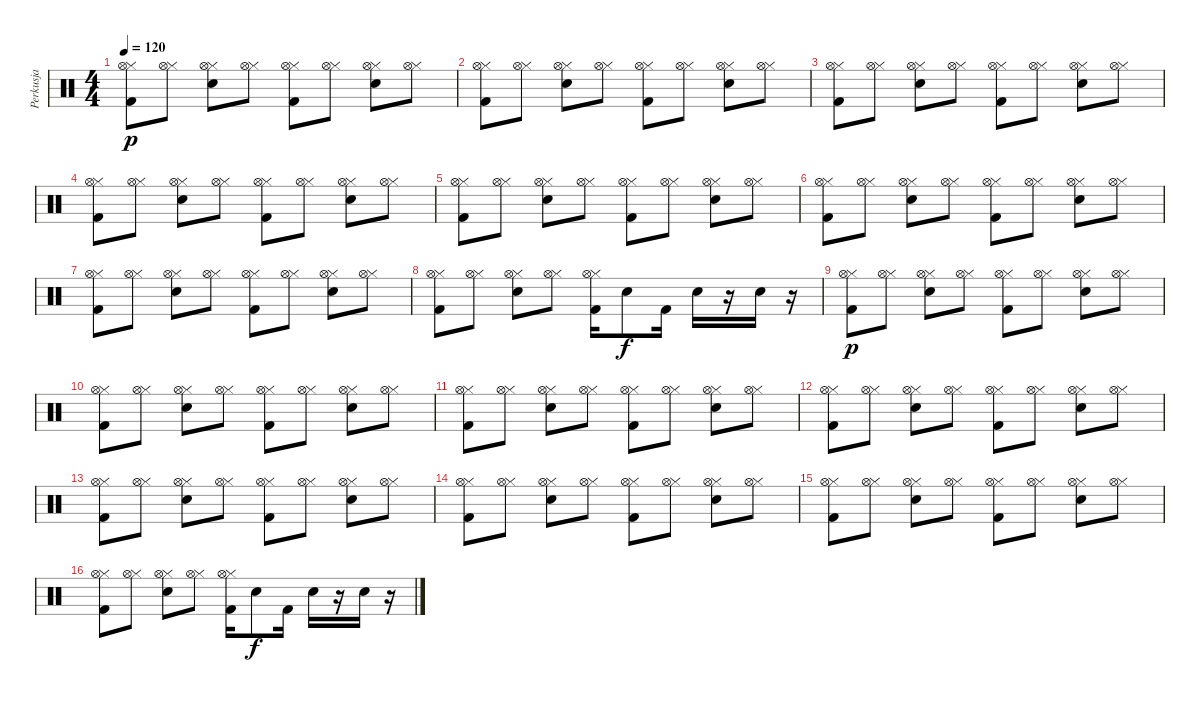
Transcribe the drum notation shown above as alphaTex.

\track ("Perkusja" "Perkusja") {instrument percussion}
\staff {score}
\articulation defaults
\ts (4 4)
\tempo 120
\clef neutral
\ks c
("Kick (hit) 2" "Hi-Hat (closed)" "Hi-Hat (open)").8{dy p} ("Hi-Hat (closed)" "Hi-Hat (open)").8 ("Electric Snare (hit)" "Hi-Hat (closed)" "Hi-Hat (open)").8 ("Hi-Hat (closed)" "Hi-Hat (open)").8 ("Kick (hit) 2" "Hi-Hat (closed)" "Hi-Hat (open)").8 ("Hi-Hat (closed)" "Hi-Hat (open)").8 ("Electric Snare (hit)" "Hi-Hat (closed)" "Hi-Hat (open)").8 ("Hi-Hat (closed)" "Hi-Hat (open)").8 |
("Kick (hit) 2" "Hi-Hat (closed)" "Hi-Hat (open)").8 ("Hi-Hat (closed)" "Hi-Hat (open)").8 ("Electric Snare (hit)" "Hi-Hat (closed)" "Hi-Hat (open)").8 ("Hi-Hat (closed)" "Hi-Hat (open)").8 ("Kick (hit) 2" "Hi-Hat (closed)" "Hi-Hat (open)").8 ("Hi-Hat (closed)" "Hi-Hat (open)").8 ("Electric Snare (hit)" "Hi-Hat (closed)" "Hi-Hat (open)").8 ("Hi-Hat (closed)" "Hi-Hat (open)").8 |
("Kick (hit) 2" "Hi-Hat (closed)" "Hi-Hat (open)").8 ("Hi-Hat (closed)" "Hi-Hat (open)").8 ("Electric Snare (hit)" "Hi-Hat (closed)" "Hi-Hat (open)").8 ("Hi-Hat (closed)" "Hi-Hat (open)").8 ("Kick (hit) 2" "Hi-Hat (closed)" "Hi-Hat (open)").8 ("Hi-Hat (closed)" "Hi-Hat (open)").8 ("Electric Snare (hit)" "Hi-Hat (closed)" "Hi-Hat (open)").8 ("Hi-Hat (closed)" "Hi-Hat (open)").8 |
("Kick (hit) 2" "Hi-Hat (closed)" "Hi-Hat (open)").8 ("Hi-Hat (closed)" "Hi-Hat (open)").8 ("Electric Snare (hit)" "Hi-Hat (closed)" "Hi-Hat (open)").8 ("Hi-Hat (closed)" "Hi-Hat (open)").8 ("Kick (hit) 2" "Hi-Hat (closed)" "Hi-Hat (open)").8 ("Hi-Hat (closed)" "Hi-Hat (open)").8 ("Electric Snare (hit)" "Hi-Hat (closed)" "Hi-Hat (open)").8 ("Hi-Hat (closed)" "Hi-Hat (open)").8 |
("Kick (hit) 2" "Hi-Hat (closed)" "Hi-Hat (open)").8 ("Hi-Hat (closed)" "Hi-Hat (open)").8 ("Electric Snare (hit)" "Hi-Hat (closed)" "Hi-Hat (open)").8 ("Hi-Hat (closed)" "Hi-Hat (open)").8 ("Kick (hit) 2" "Hi-Hat (closed)" "Hi-Hat (open)").8 ("Hi-Hat (closed)" "Hi-Hat (open)").8 ("Electric Snare (hit)" "Hi-Hat (closed)" "Hi-Hat (open)").8 ("Hi-Hat (closed)" "Hi-Hat (open)").8 |
("Kick (hit) 2" "Hi-Hat (closed)" "Hi-Hat (open)").8 ("Hi-Hat (closed)" "Hi-Hat (open)").8 ("Electric Snare (hit)" "Hi-Hat (closed)" "Hi-Hat (open)").8 ("Hi-Hat (closed)" "Hi-Hat (open)").8 ("Kick (hit) 2" "Hi-Hat (closed)" "Hi-Hat (open)").8 ("Hi-Hat (closed)" "Hi-Hat (open)").8 ("Electric Snare (hit)" "Hi-Hat (closed)" "Hi-Hat (open)").8 ("Hi-Hat (closed)" "Hi-Hat (open)").8 |
("Kick (hit) 2" "Hi-Hat (closed)" "Hi-Hat (open)").8 ("Hi-Hat (closed)" "Hi-Hat (open)").8 ("Electric Snare (hit)" "Hi-Hat (closed)" "Hi-Hat (open)").8 ("Hi-Hat (closed)" "Hi-Hat (open)").8 ("Kick (hit) 2" "Hi-Hat (closed)" "Hi-Hat (open)").8 ("Hi-Hat (closed)" "Hi-Hat (open)").8 ("Electric Snare (hit)" "Hi-Hat (closed)" "Hi-Hat (open)").8 ("Hi-Hat (closed)" "Hi-Hat (open)").8 |
("Kick (hit) 2" "Hi-Hat (closed)" "Hi-Hat (open)").8 ("Hi-Hat (closed)" "Hi-Hat (open)").8 ("Electric Snare (hit)" "Hi-Hat (closed)" "Hi-Hat (open)").8 ("Hi-Hat (closed)" "Hi-Hat (open)").8 ("Kick (hit) 2" "Hi-Hat (closed)" "Hi-Hat (open)").16 "Electric Snare (hit)".8{dy f} "Kick (hit) 2".16 "Electric Snare (hit)".16 r.16 "Electric Snare (hit)".16 r.16 |
("Kick (hit) 2" "Hi-Hat (closed)" "Hi-Hat (open)").8{dy p} ("Hi-Hat (closed)" "Hi-Hat (open)").8 ("Electric Snare (hit)" "Hi-Hat (closed)" "Hi-Hat (open)").8 ("Hi-Hat (closed)" "Hi-Hat (open)").8 ("Kick (hit) 2" "Hi-Hat (closed)" "Hi-Hat (open)").8 ("Hi-Hat (closed)" "Hi-Hat (open)").8 ("Electric Snare (hit)" "Hi-Hat (closed)" "Hi-Hat (open)").8 ("Hi-Hat (closed)" "Hi-Hat (open)").8 |
("Kick (hit) 2" "Hi-Hat (closed)" "Hi-Hat (open)").8 ("Hi-Hat (closed)" "Hi-Hat (open)").8 ("Electric Snare (hit)" "Hi-Hat (closed)" "Hi-Hat (open)").8 ("Hi-Hat (closed)" "Hi-Hat (open)").8 ("Kick (hit) 2" "Hi-Hat (closed)" "Hi-Hat (open)").8 ("Hi-Hat (closed)" "Hi-Hat (open)").8 ("Electric Snare (hit)" "Hi-Hat (closed)" "Hi-Hat (open)").8 ("Hi-Hat (closed)" "Hi-Hat (open)").8 |
("Kick (hit) 2" "Hi-Hat (closed)" "Hi-Hat (open)").8 ("Hi-Hat (closed)" "Hi-Hat (open)").8 ("Electric Snare (hit)" "Hi-Hat (closed)" "Hi-Hat (open)").8 ("Hi-Hat (closed)" "Hi-Hat (open)").8 ("Kick (hit) 2" "Hi-Hat (closed)" "Hi-Hat (open)").8 ("Hi-Hat (closed)" "Hi-Hat (open)").8 ("Electric Snare (hit)" "Hi-Hat (closed)" "Hi-Hat (open)").8 ("Hi-Hat (closed)" "Hi-Hat (open)").8 |
("Kick (hit) 2" "Hi-Hat (closed)" "Hi-Hat (open)").8 ("Hi-Hat (closed)" "Hi-Hat (open)").8 ("Electric Snare (hit)" "Hi-Hat (closed)" "Hi-Hat (open)").8 ("Hi-Hat (closed)" "Hi-Hat (open)").8 ("Kick (hit) 2" "Hi-Hat (closed)" "Hi-Hat (open)").8 ("Hi-Hat (closed)" "Hi-Hat (open)").8 ("Electric Snare (hit)" "Hi-Hat (closed)" "Hi-Hat (open)").8 ("Hi-Hat (closed)" "Hi-Hat (open)").8 |
("Kick (hit) 2" "Hi-Hat (closed)" "Hi-Hat (open)").8 ("Hi-Hat (closed)" "Hi-Hat (open)").8 ("Electric Snare (hit)" "Hi-Hat (closed)" "Hi-Hat (open)").8 ("Hi-Hat (closed)" "Hi-Hat (open)").8 ("Kick (hit) 2" "Hi-Hat (closed)" "Hi-Hat (open)").8 ("Hi-Hat (closed)" "Hi-Hat (open)").8 ("Electric Snare (hit)" "Hi-Hat (closed)" "Hi-Hat (open)").8 ("Hi-Hat (closed)" "Hi-Hat (open)").8 |
("Kick (hit) 2" "Hi-Hat (closed)" "Hi-Hat (open)").8 ("Hi-Hat (closed)" "Hi-Hat (open)").8 ("Electric Snare (hit)" "Hi-Hat (closed)" "Hi-Hat (open)").8 ("Hi-Hat (closed)" "Hi-Hat (open)").8 ("Kick (hit) 2" "Hi-Hat (closed)" "Hi-Hat (open)").8 ("Hi-Hat (closed)" "Hi-Hat (open)").8 ("Electric Snare (hit)" "Hi-Hat (closed)" "Hi-Hat (open)").8 ("Hi-Hat (closed)" "Hi-Hat (open)").8 |
("Kick (hit) 2" "Hi-Hat (closed)" "Hi-Hat (open)").8 ("Hi-Hat (closed)" "Hi-Hat (open)").8 ("Electric Snare (hit)" "Hi-Hat (closed)" "Hi-Hat (open)").8 ("Hi-Hat (closed)" "Hi-Hat (open)").8 ("Kick (hit) 2" "Hi-Hat (closed)" "Hi-Hat (open)").8 ("Hi-Hat (closed)" "Hi-Hat (open)").8 ("Electric Snare (hit)" "Hi-Hat (closed)" "Hi-Hat (open)").8 ("Hi-Hat (closed)" "Hi-Hat (open)").8 |
("Kick (hit) 2" "Hi-Hat (closed)" "Hi-Hat (open)").8 ("Hi-Hat (closed)" "Hi-Hat (open)").8 ("Electric Snare (hit)" "Hi-Hat (closed)" "Hi-Hat (open)").8 ("Hi-Hat (closed)" "Hi-Hat (open)").8 ("Kick (hit) 2" "Hi-Hat (closed)" "Hi-Hat (open)").16 "Electric Snare (hit)".8{dy f} "Kick (hit) 2".16 "Electric Snare (hit)".16 r.16 "Electric Snare (hit)".16 r.16
